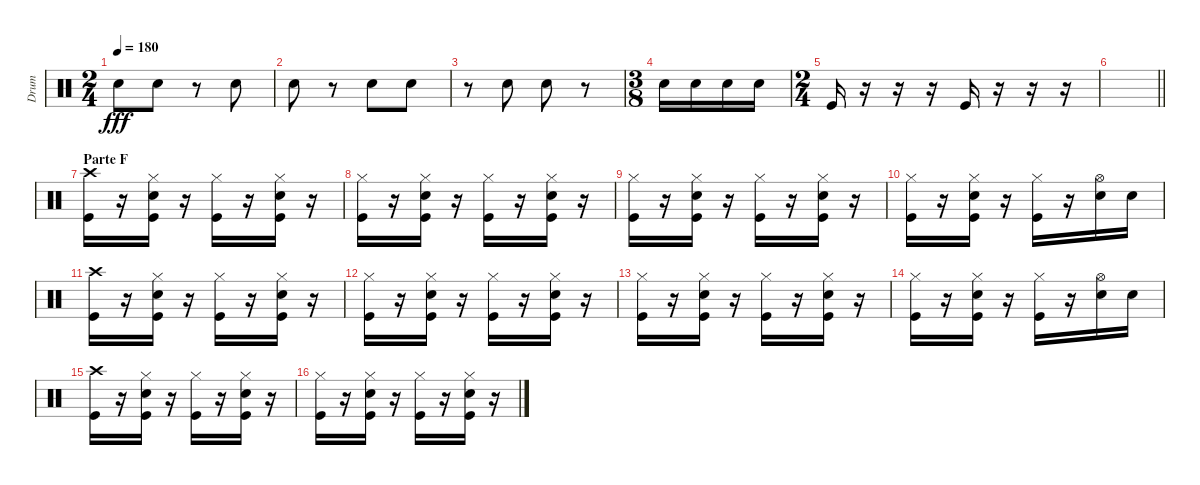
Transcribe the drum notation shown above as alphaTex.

\track ("Drum" "Drum") {instrument percussion}
\staff {score}
\articulation defaults
\ts (2 4)
\tempo 180
\clef neutral
\ks c "Snare (hit) 2".8{dy fff} "Snare (hit) 2".8
r.8 "Snare (hit) 2".8 |
"Snare (hit) 2".8 r.8 "Snare (hit) 2".8 "Snare (hit) 2".8 |
r.8 "Snare (hit) 2".8 "Snare (hit) 2".8 r.8 |
\ts (3 8)
"Snare (hit) 2".16 "Snare (hit) 2".16 "Snare (hit) 2".16 "Snare (hit) 2".16 |
\ts (2 4)
"Kick (hit)".16 r.16 r.16 r.16 "Kick (hit)".16 r.16 r.16 r.16 |
\barLineRight lightlight
|
\section ("" "Parte F")
("Crash high (hit)" "Kick (hit)").16 r.16 ("Hi-Hat (closed)" "Snare (hit) 2" "Kick (hit)").16 r.16 ("Hi-Hat (closed)" "Kick (hit)").16 r.16 ("Hi-Hat (closed)" "Snare (hit) 2" "Kick (hit)").16 r.16 |
("Hi-Hat (closed)" "Kick (hit)").16 r.16 ("Hi-Hat (closed)" "Snare (hit) 2" "Kick (hit)").16 r.16 ("Hi-Hat (closed)" "Kick (hit)").16 r.16 ("Hi-Hat (closed)" "Snare (hit) 2" "Kick (hit)").16 r.16 |
("Hi-Hat (closed)" "Kick (hit)").16 r.16 ("Hi-Hat (closed)" "Snare (hit) 2" "Kick (hit)").16 r.16 ("Hi-Hat (closed)" "Kick (hit)").16 r.16 ("Hi-Hat (closed)" "Snare (hit) 2" "Kick (hit)").16 r.16 |
("Hi-Hat (closed)" "Kick (hit)").16 r.16 ("Hi-Hat (closed)" "Snare (hit) 2" "Kick (hit)").16 r.16 ("Hi-Hat (closed)" "Kick (hit)").16 r.16 ("Hi-Hat (open)" "Snare (hit) 2").16 "Snare (hit) 2".16 |
("Crash high (hit)" "Kick (hit)").16 r.16 ("Hi-Hat (closed)" "Snare (hit) 2" "Kick (hit)").16 r.16 ("Hi-Hat (closed)" "Kick (hit)").16 r.16 ("Hi-Hat (closed)" "Snare (hit) 2" "Kick (hit)").16 r.16 |
("Hi-Hat (closed)" "Kick (hit)").16 r.16 ("Hi-Hat (closed)" "Snare (hit) 2" "Kick (hit)").16 r.16 ("Hi-Hat (closed)" "Kick (hit)").16 r.16 ("Hi-Hat (closed)" "Snare (hit) 2" "Kick (hit)").16 r.16 |
("Hi-Hat (closed)" "Kick (hit)").16 r.16 ("Hi-Hat (closed)" "Snare (hit) 2" "Kick (hit)").16 r.16 ("Hi-Hat (closed)" "Kick (hit)").16 r.16 ("Hi-Hat (closed)" "Snare (hit) 2" "Kick (hit)").16 r.16 |
("Hi-Hat (closed)" "Kick (hit)").16 r.16 ("Hi-Hat (closed)" "Snare (hit) 2" "Kick (hit)").16 r.16 ("Hi-Hat (closed)" "Kick (hit)").16 r.16 ("Hi-Hat (open)" "Snare (hit) 2").16 "Snare (hit) 2".16 |
("Crash high (hit)" "Kick (hit)").16 r.16 ("Hi-Hat (closed)" "Snare (hit) 2" "Kick (hit)").16 r.16 ("Hi-Hat (closed)" "Kick (hit)").16 r.16 ("Hi-Hat (closed)" "Snare (hit) 2" "Kick (hit)").16 r.16 |
("Hi-Hat (closed)" "Kick (hit)").16 r.16 ("Hi-Hat (closed)" "Snare (hit) 2" "Kick (hit)").16 r.16 ("Hi-Hat (closed)" "Kick (hit)").16 r.16 ("Hi-Hat (closed)" "Snare (hit) 2" "Kick (hit)").16 r.16
